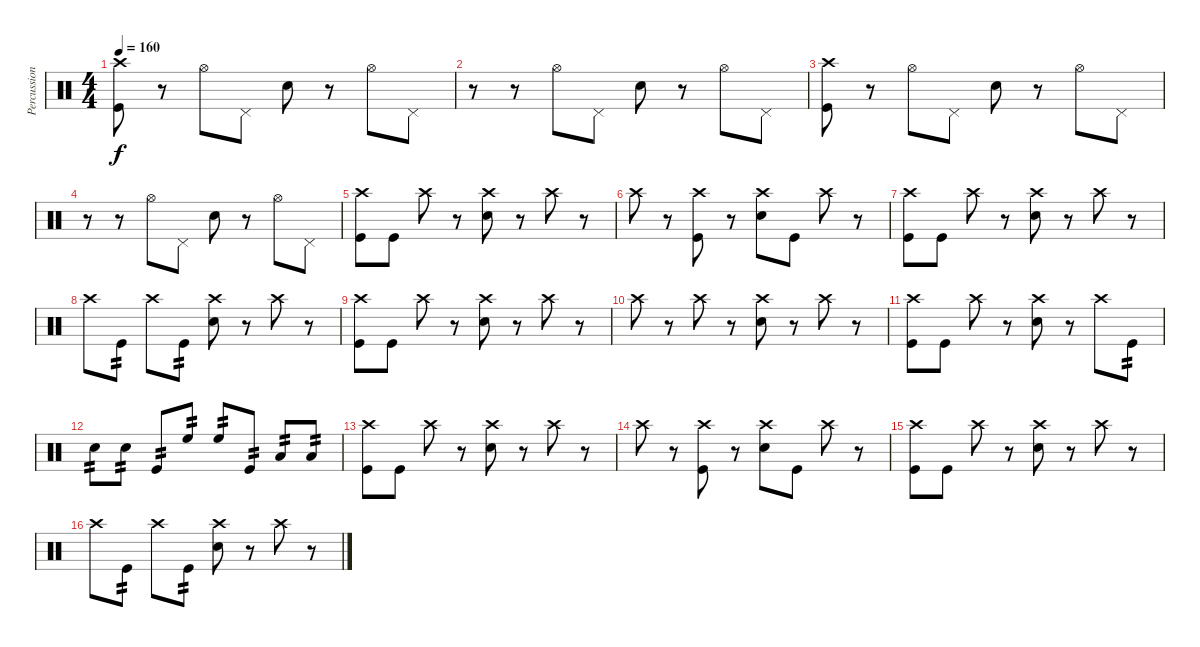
\track ("Percussion" "Percussion") {instrument percussion}
\staff {score}
\articulation defaults
\ts (4 4)
\tempo 160
\clef neutral
\ks c
("Crash high (hit)" "Kick (hit)").8{dy f} r.8 "Hi-Hat (open)".8 "Pedal Hi-Hat (hit)".8 "Snare (hit) 2".8 r.8 "Hi-Hat (open)".8 "Pedal Hi-Hat (hit)".8 |
r.8 r.8 "Hi-Hat (open)".8 "Pedal Hi-Hat (hit)".8 "Snare (hit) 2".8 r.8 "Hi-Hat (open)".8 "Pedal Hi-Hat (hit)".8 |
("Crash high (hit)" "Kick (hit)").8 r.8 "Hi-Hat (open)".8 "Pedal Hi-Hat (hit)".8 "Snare (hit) 2".8 r.8 "Hi-Hat (open)".8 "Pedal Hi-Hat (hit)".8 |
r.8 r.8 "Hi-Hat (open)".8 "Pedal Hi-Hat (hit)".8 "Snare (hit) 2".8 r.8 "Hi-Hat (open)".8 "Pedal Hi-Hat (hit)".8 |
("Crash high (hit)" "Kick (hit)").8 "Kick (hit)".8 "Crash high (hit)".8 r.8 ("Crash high (hit)" "Snare (hit) 2").8 r.8 "Crash high (hit)".8 r.8 |
"Crash high (hit)".8 r.8 ("Crash high (hit)" "Kick (hit)").8 r.8 ("Crash high (hit)" "Snare (hit) 2").8 "Kick (hit)".8 "Crash high (hit)".8 r.8 |
("Crash high (hit)" "Kick (hit)").8 "Kick (hit)".8 "Crash high (hit)".8 r.8 ("Crash high (hit)" "Snare (hit) 2").8 r.8 "Crash high (hit)".8 r.8 |
"Crash high (hit)".8 "Kick (hit)".8{tp 2} "Crash high (hit)".8 "Kick (hit)".8{tp 2} ("Crash high (hit)" "Snare (hit) 2").8 r.8 "Crash high (hit)".8 r.8 |
("Crash high (hit)" "Kick (hit)").8 "Kick (hit)".8 "Crash high (hit)".8 r.8 ("Crash high (hit)" "Snare (hit) 2").8 r.8 "Crash high (hit)".8 r.8 |
"Crash high (hit)".8 r.8 "Crash high (hit)".8 r.8 ("Crash high (hit)" "Snare (hit) 2").8 r.8 "Crash high (hit)".8 r.8 |
("Crash high (hit)" "Kick (hit)").8 "Kick (hit)".8 "Crash high (hit)".8 r.8 ("Crash high (hit)" "Snare (hit) 2").8 r.8 "Crash high (hit)".8 "Kick (hit)".8{tp 2} |
"Snare (hit) 2".8{tp 2} "Snare (hit) 2".8{tp 2} "Kick (hit)".8{tp 2} "High Floor Tom (hit)".8{tp 2} "High Floor Tom (hit)".8{tp 2} "Kick (hit)".8{tp 2} "Low Tom (hit)".8{tp 2} "Low Tom (hit)".8{tp 2} |
("Crash high (hit)" "Kick (hit)").8 "Kick (hit)".8 "Crash high (hit)".8 r.8 ("Crash high (hit)" "Snare (hit) 2").8 r.8 "Crash high (hit)".8 r.8 |
"Crash high (hit)".8 r.8 ("Crash high (hit)" "Kick (hit)").8 r.8 ("Crash high (hit)" "Snare (hit) 2").8 "Kick (hit)".8 "Crash high (hit)".8 r.8 |
("Crash high (hit)" "Kick (hit)").8 "Kick (hit)".8 "Crash high (hit)".8 r.8 ("Crash high (hit)" "Snare (hit) 2").8 r.8 "Crash high (hit)".8 r.8 |
"Crash high (hit)".8 "Kick (hit)".8{tp 2} "Crash high (hit)".8 "Kick (hit)".8{tp 2} ("Crash high (hit)" "Snare (hit) 2").8 r.8 "Crash high (hit)".8 r.8
